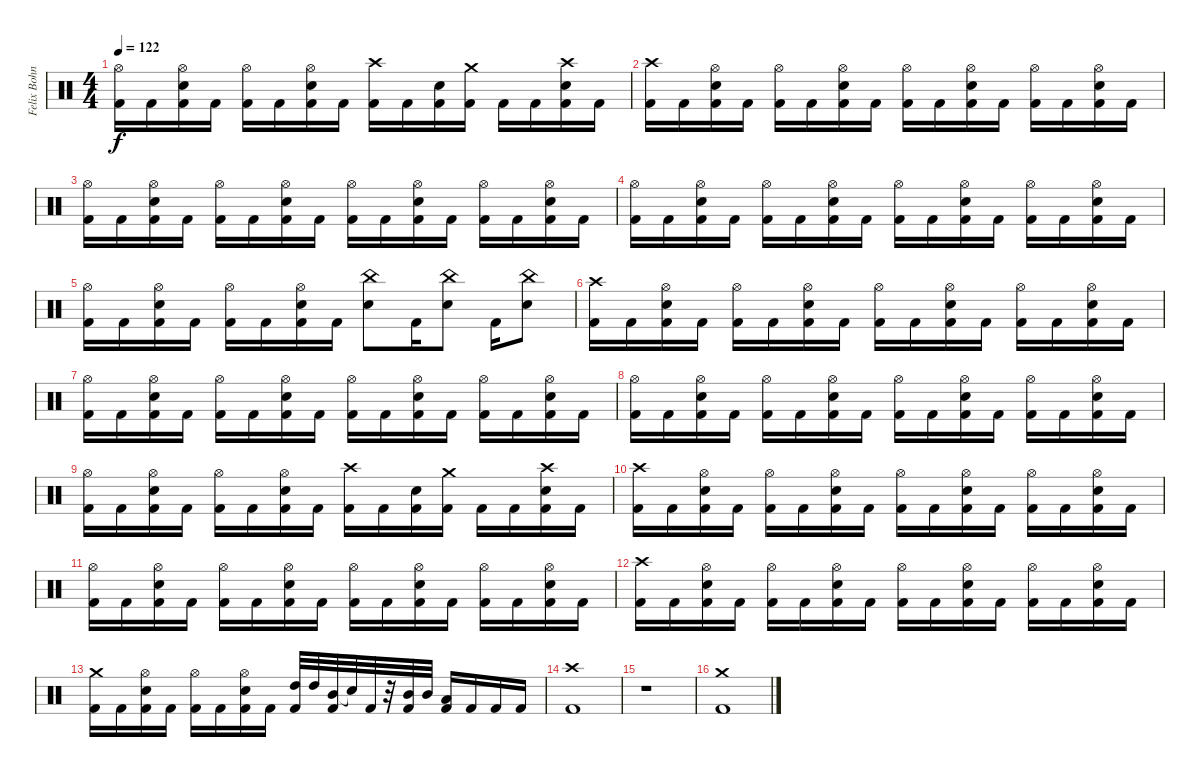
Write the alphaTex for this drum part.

\track ("Felix Bohnke" "Felix Bohn") {instrument percussion}
\staff {score}
\articulation defaults
\ts (4 4)
\tempo 122
\clef neutral
\ks c
("Hi-Hat (open)" "Kick (hit) 2").16{dy f} "Kick (hit) 2".16 ("Hi-Hat (open)" "Snare (hit) 2" "Kick (hit) 2").16 "Kick (hit) 2".16 ("Hi-Hat (open)" "Kick (hit) 2").16 "Kick (hit) 2".16 ("Hi-Hat (open)" "Snare (hit) 2" "Kick (hit) 2").16 "Kick (hit) 2".16 ("Crash high (hit)" "Kick (hit) 2").16 "Kick (hit) 2".16 ("Snare (hit) 2" "Kick (hit) 2").16 ("Crash medium (hit)" "Kick (hit) 2").16 "Kick (hit) 2".16 "Kick (hit) 2".16 ("Crash high (hit)" "Snare (hit) 2" "Kick (hit) 2").16 "Kick (hit) 2".16 |
("Crash high (hit)" "Kick (hit) 2").16 "Kick (hit) 2".16 ("Hi-Hat (open)" "Snare (hit) 2" "Kick (hit) 2").16 "Kick (hit) 2".16 ("Hi-Hat (open)" "Kick (hit) 2").16 "Kick (hit) 2".16 ("Hi-Hat (open)" "Snare (hit) 2" "Kick (hit) 2").16 "Kick (hit) 2".16 ("Hi-Hat (open)" "Kick (hit) 2").16 "Kick (hit) 2".16 ("Hi-Hat (open)" "Snare (hit) 2" "Kick (hit) 2").16 "Kick (hit) 2".16 ("Hi-Hat (open)" "Kick (hit) 2").16 "Kick (hit) 2".16 ("Hi-Hat (open)" "Snare (hit) 2" "Kick (hit) 2").16 "Kick (hit) 2".16 |
("Hi-Hat (open)" "Kick (hit) 2").16 "Kick (hit) 2".16 ("Hi-Hat (open)" "Snare (hit) 2" "Kick (hit) 2").16 "Kick (hit) 2".16 ("Hi-Hat (open)" "Kick (hit) 2").16 "Kick (hit) 2".16 ("Hi-Hat (open)" "Snare (hit) 2" "Kick (hit) 2").16 "Kick (hit) 2".16 ("Hi-Hat (open)" "Kick (hit) 2").16 "Kick (hit) 2".16 ("Hi-Hat (open)" "Snare (hit) 2" "Kick (hit) 2").16 "Kick (hit) 2".16 ("Hi-Hat (open)" "Kick (hit) 2").16 "Kick (hit) 2".16 ("Hi-Hat (open)" "Snare (hit) 2" "Kick (hit) 2").16 "Kick (hit) 2".16 |
("Hi-Hat (open)" "Kick (hit) 2").16 "Kick (hit) 2".16 ("Hi-Hat (open)" "Snare (hit) 2" "Kick (hit) 2").16 "Kick (hit) 2".16 ("Hi-Hat (open)" "Kick (hit) 2").16 "Kick (hit) 2".16 ("Hi-Hat (open)" "Snare (hit) 2" "Kick (hit) 2").16 "Kick (hit) 2".16 ("Hi-Hat (open)" "Kick (hit) 2").16 "Kick (hit) 2".16 ("Hi-Hat (open)" "Snare (hit) 2" "Kick (hit) 2").16 "Kick (hit) 2".16 ("Hi-Hat (open)" "Kick (hit) 2").16 "Kick (hit) 2".16 ("Hi-Hat (open)" "Snare (hit) 2" "Kick (hit) 2").16 "Kick (hit) 2".16 |
("Hi-Hat (open)" "Kick (hit) 2").16 "Kick (hit) 2".16 ("Hi-Hat (open)" "Snare (hit) 2" "Kick (hit) 2").16 "Kick (hit) 2".16 ("Hi-Hat (open)" "Kick (hit) 2").16 "Kick (hit) 2".16 ("Hi-Hat (open)" "Snare (hit) 2" "Kick (hit) 2").16 "Kick (hit) 2".16 ("China (hit)" "Snare (hit) 2").8 "Kick (hit) 2".16 ("China (hit)" "Snare (hit) 2").8 "Kick (hit) 2".16 ("China (hit)" "Snare (hit) 2").8 |
("Crash high (hit)" "Kick (hit) 2").16 "Kick (hit) 2".16 ("Hi-Hat (open)" "Snare (hit) 2" "Kick (hit) 2").16 "Kick (hit) 2".16 ("Hi-Hat (open)" "Kick (hit) 2").16 "Kick (hit) 2".16 ("Hi-Hat (open)" "Snare (hit) 2" "Kick (hit) 2").16 "Kick (hit) 2".16 ("Hi-Hat (open)" "Kick (hit) 2").16 "Kick (hit) 2".16 ("Hi-Hat (open)" "Snare (hit) 2" "Kick (hit) 2").16 "Kick (hit) 2".16 ("Hi-Hat (open)" "Kick (hit) 2").16 "Kick (hit) 2".16 ("Hi-Hat (open)" "Snare (hit) 2" "Kick (hit) 2").16 "Kick (hit) 2".16 |
("Hi-Hat (open)" "Kick (hit) 2").16 "Kick (hit) 2".16 ("Hi-Hat (open)" "Snare (hit) 2" "Kick (hit) 2").16 "Kick (hit) 2".16 ("Hi-Hat (open)" "Kick (hit) 2").16 "Kick (hit) 2".16 ("Hi-Hat (open)" "Snare (hit) 2" "Kick (hit) 2").16 "Kick (hit) 2".16 ("Hi-Hat (open)" "Kick (hit) 2").16 "Kick (hit) 2".16 ("Hi-Hat (open)" "Snare (hit) 2" "Kick (hit) 2").16 "Kick (hit) 2".16 ("Hi-Hat (open)" "Kick (hit) 2").16 "Kick (hit) 2".16 ("Hi-Hat (open)" "Snare (hit) 2" "Kick (hit) 2").16 "Kick (hit) 2".16 |
("Hi-Hat (open)" "Kick (hit) 2").16 "Kick (hit) 2".16 ("Hi-Hat (open)" "Snare (hit) 2" "Kick (hit) 2").16 "Kick (hit) 2".16 ("Hi-Hat (open)" "Kick (hit) 2").16 "Kick (hit) 2".16 ("Hi-Hat (open)" "Snare (hit) 2" "Kick (hit) 2").16 "Kick (hit) 2".16 ("Hi-Hat (open)" "Kick (hit) 2").16 "Kick (hit) 2".16 ("Hi-Hat (open)" "Snare (hit) 2" "Kick (hit) 2").16 "Kick (hit) 2".16 ("Hi-Hat (open)" "Kick (hit) 2").16 "Kick (hit) 2".16 ("Hi-Hat (open)" "Snare (hit) 2" "Kick (hit) 2").16 "Kick (hit) 2".16 |
("Hi-Hat (open)" "Kick (hit) 2").16 "Kick (hit) 2".16 ("Hi-Hat (open)" "Snare (hit) 2" "Kick (hit) 2").16 "Kick (hit) 2".16 ("Hi-Hat (open)" "Kick (hit) 2").16 "Kick (hit) 2".16 ("Hi-Hat (open)" "Snare (hit) 2" "Kick (hit) 2").16 "Kick (hit) 2".16 ("Crash high (hit)" "Kick (hit) 2").16 "Kick (hit) 2".16 ("Snare (hit) 2" "Kick (hit) 2").16 ("Crash medium (hit)" "Kick (hit) 2").16 "Kick (hit) 2".16 "Kick (hit) 2".16 ("Crash high (hit)" "Snare (hit) 2" "Kick (hit) 2").16 "Kick (hit) 2".16 |
("Crash high (hit)" "Kick (hit) 2").16 "Kick (hit) 2".16 ("Hi-Hat (open)" "Snare (hit) 2" "Kick (hit) 2").16 "Kick (hit) 2".16 ("Hi-Hat (open)" "Kick (hit) 2").16 "Kick (hit) 2".16 ("Hi-Hat (open)" "Snare (hit) 2" "Kick (hit) 2").16 "Kick (hit) 2".16 ("Hi-Hat (open)" "Kick (hit) 2").16 "Kick (hit) 2".16 ("Hi-Hat (open)" "Snare (hit) 2" "Kick (hit) 2").16 "Kick (hit) 2".16 ("Hi-Hat (open)" "Kick (hit) 2").16 "Kick (hit) 2".16 ("Hi-Hat (open)" "Snare (hit) 2" "Kick (hit) 2").16 "Kick (hit) 2".16 |
("Hi-Hat (open)" "Kick (hit) 2").16 "Kick (hit) 2".16 ("Hi-Hat (open)" "Snare (hit) 2" "Kick (hit) 2").16 "Kick (hit) 2".16 ("Hi-Hat (open)" "Kick (hit) 2").16 "Kick (hit) 2".16 ("Hi-Hat (open)" "Snare (hit) 2" "Kick (hit) 2").16 "Kick (hit) 2".16 ("Hi-Hat (open)" "Kick (hit) 2").16 "Kick (hit) 2".16 ("Hi-Hat (open)" "Snare (hit) 2" "Kick (hit) 2").16 "Kick (hit) 2".16 ("Hi-Hat (open)" "Kick (hit) 2").16 "Kick (hit) 2".16 ("Hi-Hat (open)" "Snare (hit) 2" "Kick (hit) 2").16 "Kick (hit) 2".16 |
("Crash high (hit)" "Kick (hit) 2").16 "Kick (hit) 2".16 ("Hi-Hat (open)" "Snare (hit) 2" "Kick (hit) 2").16 "Kick (hit) 2".16 ("Hi-Hat (open)" "Kick (hit) 2").16 "Kick (hit) 2".16 ("Hi-Hat (open)" "Snare (hit) 2" "Kick (hit) 2").16 "Kick (hit) 2".16 ("Hi-Hat (open)" "Kick (hit) 2").16 "Kick (hit) 2".16 ("Hi-Hat (open)" "Snare (hit) 2" "Kick (hit) 2").16 "Kick (hit) 2".16 ("Hi-Hat (open)" "Kick (hit) 2").16 "Kick (hit) 2".16 ("Hi-Hat (open)" "Snare (hit) 2" "Kick (hit) 2").16 "Kick (hit) 2".16 |
("Crash medium (hit)" "Kick (hit) 2").16 "Kick (hit) 2".16 ("Hi-Hat (open)" "Snare (hit) 2" "Kick (hit) 2").16 "Kick (hit) 2".16 ("Hi-Hat (open)" "Kick (hit) 2").16 "Kick (hit) 2".16 ("Hi-Hat (open)" "Snare (hit) 2" "Kick (hit) 2").16 "Kick (hit) 2".16 ("High Tom (hit)" "Kick (hit) 2").32 "High Tom (hit)".32 ("Mid Tom (hit)" "Kick (hit) 2").32 "Snare (hit)"{t}.32 "Kick (hit) 2".32 r.32 ("Mid Tom (hit)" "Kick (hit) 2").32 "Mid Tom (hit)".32 ("Low Tom (hit)" "Kick (hit) 2").16 "Kick (hit) 2".16 "Kick (hit) 2".16 "Kick (hit) 2".16 |
("Crash high (hit)" "Kick (hit) 2").1 |
r.1 |
("Crash medium (hit)" "Kick (hit) 2").1
